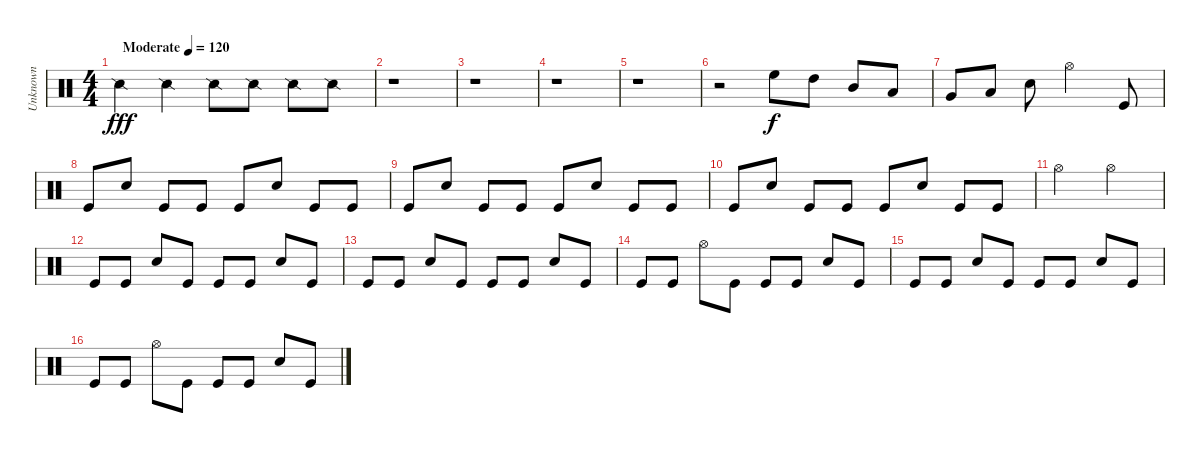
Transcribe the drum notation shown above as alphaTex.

\track ("Unknown" "Unknown") {instrument percussion}
\staff {score}
\articulation defaults
\ts (4 4)
\tempo (120 "Moderate")
\clef neutral
\ks c "Snare (side stick) 2".4{dy fff} "Snare (side stick) 2".4 "Snare (side stick) 2".8 "Snare (side stick) 2".8 "Snare (side stick) 2".8 "Snare (side stick) 2".8
|
r.1 |
r.1 |
r.1 |
r.1 |
r.2 "High Floor Tom (hit)".8{dy f} "High Tom (hit)".8 "Mid Tom (hit)".8 "Low Tom (hit)".8 |
"Very Low Tom (hit)".8 "Low Floor Tom (hit)".8 "Snare (hit) 2".8 "Hi-Hat (open)".2 "Kick (hit)".8 |
"Kick (hit)".8 "Snare (hit) 2".8 "Kick (hit)".8 "Kick (hit)".8 "Kick (hit)".8 "Snare (hit) 2".8 "Kick (hit)".8 "Kick (hit)".8 |
"Kick (hit)".8 "Snare (hit) 2".8 "Kick (hit)".8 "Kick (hit)".8 "Kick (hit)".8 "Snare (hit) 2".8 "Kick (hit)".8 "Kick (hit)".8 |
"Kick (hit)".8 "Snare (hit) 2".8 "Kick (hit)".8 "Kick (hit)".8 "Kick (hit)".8 "Snare (hit) 2".8 "Kick (hit)".8 "Kick (hit)".8 |
"Hi-Hat (open)".2 "Hi-Hat (open)".2 |
"Kick (hit)".8 "Kick (hit)".8 "Snare (hit) 2".8 "Kick (hit)".8 "Kick (hit)".8 "Kick (hit)".8 "Snare (hit) 2".8 "Kick (hit)".8 |
"Kick (hit)".8 "Kick (hit)".8 "Snare (hit) 2".8 "Kick (hit)".8 "Kick (hit)".8 "Kick (hit)".8 "Snare (hit) 2".8 "Kick (hit)".8 |
"Kick (hit)".8 "Kick (hit)".8 "Hi-Hat (open)".8 "Kick (hit)".8 "Kick (hit)".8 "Kick (hit)".8 "Snare (hit) 2".8 "Kick (hit)".8 |
"Kick (hit)".8 "Kick (hit)".8 "Snare (hit) 2".8 "Kick (hit)".8 "Kick (hit)".8 "Kick (hit)".8 "Snare (hit) 2".8 "Kick (hit)".8 |
"Kick (hit)".8 "Kick (hit)".8 "Hi-Hat (open)".8 "Kick (hit)".8 "Kick (hit)".8 "Kick (hit)".8 "Snare (hit) 2".8 "Kick (hit)".8
